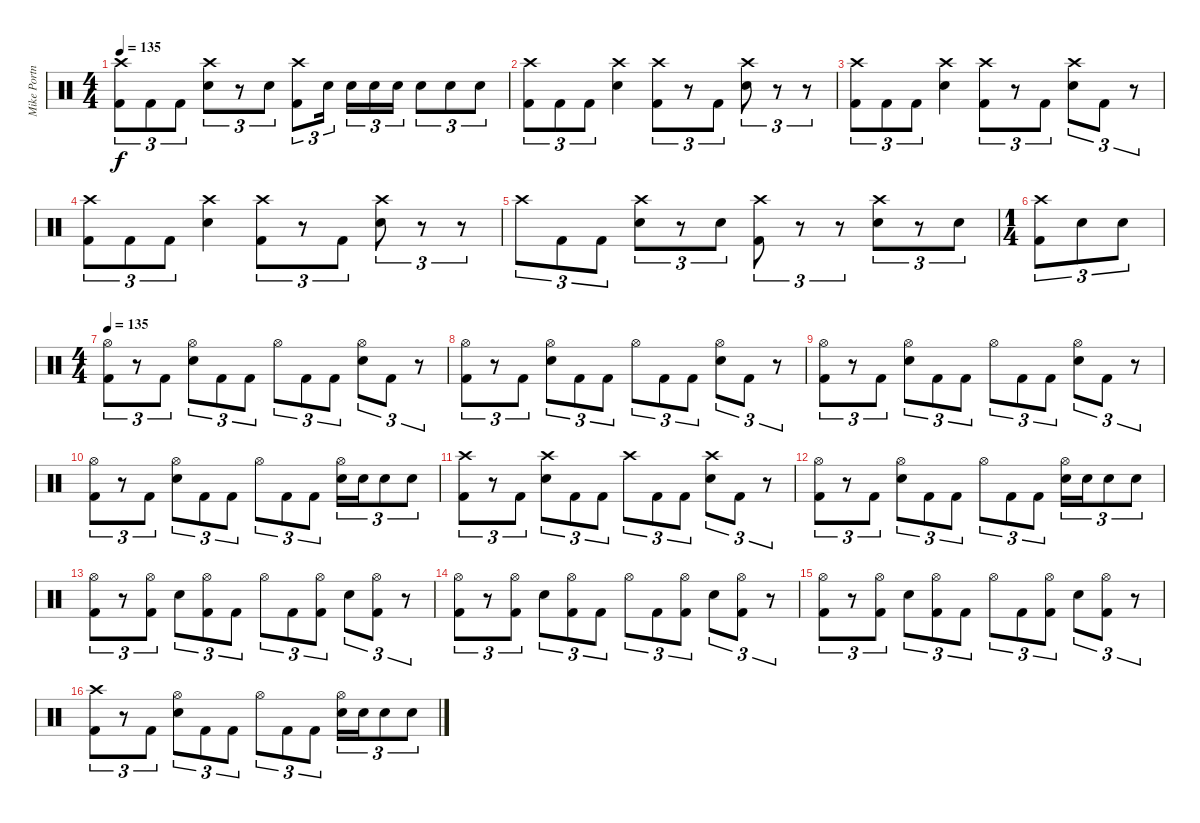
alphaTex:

\track ("Mike Portnoy" "Mike Portn") {instrument percussion}
\staff {score}
\articulation defaults
\ts (4 4)
\tempo 135
\clef neutral
\ks c
("Crash high (hit)" "Kick (hit) 2").8{tu (3 2) dy f} "Kick (hit) 2".8{tu (3 2)} "Kick (hit) 2".8{tu (3 2)} ("Crash high (hit)" "Snare (hit) 2").8{tu (3 2)} r.8{tu (3 2)} "Snare (hit) 2".8{tu (3 2)} ("Crash high (hit)" "Kick (hit) 2").8{tu (3 2)} "Snare (hit) 2".16{tu (3 2)} "Snare (hit) 2".16{tu (3 2)} "Snare (hit) 2".16{tu (3 2)} "Snare (hit) 2".16{tu (3 2)} "Snare (hit) 2".8{tu (3 2)} "Snare (hit) 2".8{tu (3 2)} "Snare (hit) 2".8{tu (3 2)} |
("Crash high (hit)" "Kick (hit) 2").8{tu (3 2)} "Kick (hit) 2".8{tu (3 2)} "Kick (hit) 2".8{tu (3 2)} ("Crash high (hit)" "Snare (hit) 2").4 ("Crash high (hit)" "Kick (hit) 2").8{tu (3 2)} r.8{tu (3 2)} "Kick (hit) 2".8{tu (3 2)} ("Crash high (hit)" "Snare (hit) 2").8{tu (3 2)} r.8{tu (3 2)} r.8{tu (3 2)} |
("Crash high (hit)" "Kick (hit) 2").8{tu (3 2)} "Kick (hit) 2".8{tu (3 2)} "Kick (hit) 2".8{tu (3 2)} ("Crash high (hit)" "Snare (hit) 2").4 ("Crash high (hit)" "Kick (hit) 2").8{tu (3 2)} r.8{tu (3 2)} "Kick (hit) 2".8{tu (3 2)} ("Crash high (hit)" "Snare (hit) 2").8{tu (3 2)} "Kick (hit) 2".8{tu (3 2)} r.8{tu (3 2)} |
("Crash high (hit)" "Kick (hit) 2").8{tu (3 2)} "Kick (hit) 2".8{tu (3 2)} "Kick (hit) 2".8{tu (3 2)} ("Crash high (hit)" "Snare (hit) 2").4 ("Crash high (hit)" "Kick (hit) 2").8{tu (3 2)} r.8{tu (3 2)} "Kick (hit) 2".8{tu (3 2)} ("Crash high (hit)" "Snare (hit) 2").8{tu (3 2)} r.8{tu (3 2)} r.8{tu (3 2)} |
"Crash high (hit)".8{tu (3 2)} "Kick (hit) 2".8{tu (3 2)} "Kick (hit) 2".8{tu (3 2)} ("Crash high (hit)" "Snare (hit) 2").8{tu (3 2)} r.8{tu (3 2)} "Snare (hit) 2".8{tu (3 2)} ("Crash high (hit)" "Kick (hit) 2").8{tu (3 2)} r.8{tu (3 2)} r.8{tu (3 2)} ("Crash high (hit)" "Snare (hit) 2").8{tu (3 2)} r.8{tu (3 2)} "Snare (hit) 2".8{tu (3 2)} |
\ts (1 4)
("Crash high (hit)" "Kick (hit) 2").8{tu (3 2)} "Snare (hit) 2".8{tu (3 2)} "Snare (hit) 2".8{tu (3 2)} |
\ts (4 4)
\tempo 135
("Hi-Hat (open)" "Kick (hit) 2").8{tu (3 2)} r.8{tu (3 2)} "Kick (hit) 2".8{tu (3 2)} ("Hi-Hat (open)" "Snare (hit) 2").8{tu (3 2)} "Kick (hit) 2".8{tu (3 2)} "Kick (hit) 2".8{tu (3 2)} "Hi-Hat (open)".8{tu (3 2)} "Kick (hit) 2".8{tu (3 2)} "Kick (hit) 2".8{tu (3 2)} ("Hi-Hat (open)" "Snare (hit) 2").8{tu (3 2)} "Kick (hit) 2".8{tu (3 2)} r.8{tu (3 2)} |
("Hi-Hat (open)" "Kick (hit) 2").8{tu (3 2)} r.8{tu (3 2)} "Kick (hit) 2".8{tu (3 2)} ("Hi-Hat (open)" "Snare (hit) 2").8{tu (3 2)} "Kick (hit) 2".8{tu (3 2)} "Kick (hit) 2".8{tu (3 2)} "Hi-Hat (open)".8{tu (3 2)} "Kick (hit) 2".8{tu (3 2)} "Kick (hit) 2".8{tu (3 2)} ("Hi-Hat (open)" "Snare (hit) 2").8{tu (3 2)} "Kick (hit) 2".8{tu (3 2)} r.8{tu (3 2)} |
("Hi-Hat (open)" "Kick (hit) 2").8{tu (3 2)} r.8{tu (3 2)} "Kick (hit) 2".8{tu (3 2)} ("Hi-Hat (open)" "Snare (hit) 2").8{tu (3 2)} "Kick (hit) 2".8{tu (3 2)} "Kick (hit) 2".8{tu (3 2)} "Hi-Hat (open)".8{tu (3 2)} "Kick (hit) 2".8{tu (3 2)} "Kick (hit) 2".8{tu (3 2)} ("Hi-Hat (open)" "Snare (hit) 2").8{tu (3 2)} "Kick (hit) 2".8{tu (3 2)} r.8{tu (3 2)} |
("Hi-Hat (open)" "Kick (hit) 2").8{tu (3 2)} r.8{tu (3 2)} "Kick (hit) 2".8{tu (3 2)} ("Hi-Hat (open)" "Snare (hit) 2").8{tu (3 2)} "Kick (hit) 2".8{tu (3 2)} "Kick (hit) 2".8{tu (3 2)} "Hi-Hat (open)".8{tu (3 2)} "Kick (hit) 2".8{tu (3 2)} "Kick (hit) 2".8{tu (3 2)} ("Hi-Hat (open)" "Snare (hit) 2").16{tu (3 2)} "Snare (hit) 2".16{tu (3 2)} "Snare (hit) 2".8{tu (3 2)} "Snare (hit) 2".8{tu (3 2)} |
("Crash high (hit)" "Kick (hit) 2").8{tu (3 2)} r.8{tu (3 2)} "Kick (hit) 2".8{tu (3 2)} ("Crash high (hit)" "Snare (hit) 2").8{tu (3 2)} "Kick (hit) 2".8{tu (3 2)} "Kick (hit) 2".8{tu (3 2)} "Crash high (hit)".8{tu (3 2)} "Kick (hit) 2".8{tu (3 2)} "Kick (hit) 2".8{tu (3 2)} ("Crash high (hit)" "Snare (hit) 2").8{tu (3 2)} "Kick (hit) 2".8{tu (3 2)} r.8{tu (3 2)} |
("Hi-Hat (open)" "Kick (hit) 2").8{tu (3 2)} r.8{tu (3 2)} "Kick (hit) 2".8{tu (3 2)} ("Hi-Hat (open)" "Snare (hit) 2").8{tu (3 2)} "Kick (hit) 2".8{tu (3 2)} "Kick (hit) 2".8{tu (3 2)} "Hi-Hat (open)".8{tu (3 2)} "Kick (hit) 2".8{tu (3 2)} "Kick (hit) 2".8{tu (3 2)} ("Hi-Hat (open)" "Snare (hit) 2").16{tu (3 2)} "Snare (hit) 2".16{tu (3 2)} "Snare (hit) 2".8{tu (3 2)} "Snare (hit) 2".8{tu (3 2)} |
("Hi-Hat (open)" "Kick (hit) 2").8{tu (3 2)} r.8{tu (3 2)} ("Hi-Hat (open)" "Kick (hit) 2").8{tu (3 2)} "Snare (hit) 2".8{tu (3 2)} ("Hi-Hat (open)" "Kick (hit) 2").8{tu (3 2)} "Kick (hit) 2".8{tu (3 2)} "Hi-Hat (open)".8{tu (3 2)} "Kick (hit) 2".8{tu (3 2)} ("Hi-Hat (open)" "Kick (hit) 2").8{tu (3 2)} "Snare (hit) 2".8{tu (3 2)} ("Hi-Hat (open)" "Kick (hit) 2").8{tu (3 2)} r.8{tu (3 2)} |
("Hi-Hat (open)" "Kick (hit) 2").8{tu (3 2)} r.8{tu (3 2)} ("Hi-Hat (open)" "Kick (hit) 2").8{tu (3 2)} "Snare (hit) 2".8{tu (3 2)} ("Hi-Hat (open)" "Kick (hit) 2").8{tu (3 2)} "Kick (hit) 2".8{tu (3 2)} "Hi-Hat (open)".8{tu (3 2)} "Kick (hit) 2".8{tu (3 2)} ("Hi-Hat (open)" "Kick (hit) 2").8{tu (3 2)} "Snare (hit) 2".8{tu (3 2)} ("Hi-Hat (open)" "Kick (hit) 2").8{tu (3 2)} r.8{tu (3 2)} |
("Hi-Hat (open)" "Kick (hit) 2").8{tu (3 2)} r.8{tu (3 2)} ("Hi-Hat (open)" "Kick (hit) 2").8{tu (3 2)} "Snare (hit) 2".8{tu (3 2)} ("Hi-Hat (open)" "Kick (hit) 2").8{tu (3 2)} "Kick (hit) 2".8{tu (3 2)} "Hi-Hat (open)".8{tu (3 2)} "Kick (hit) 2".8{tu (3 2)} ("Hi-Hat (open)" "Kick (hit) 2").8{tu (3 2)} "Snare (hit) 2".8{tu (3 2)} ("Hi-Hat (open)" "Kick (hit) 2").8{tu (3 2)} r.8{tu (3 2)} |
("Crash high (hit)" "Kick (hit) 2").8{tu (3 2)} r.8{tu (3 2)} "Kick (hit) 2".8{tu (3 2)} ("Hi-Hat (open)" "Snare (hit) 2").8{tu (3 2)} "Kick (hit) 2".8{tu (3 2)} "Kick (hit) 2".8{tu (3 2)} "Hi-Hat (open)".8{tu (3 2)} "Kick (hit) 2".8{tu (3 2)} "Kick (hit) 2".8{tu (3 2)} ("Hi-Hat (open)" "Snare (hit) 2").16{tu (3 2)} "Snare (hit) 2".16{tu (3 2)} "Snare (hit) 2".8{tu (3 2)} "Snare (hit) 2".8{tu (3 2)}
